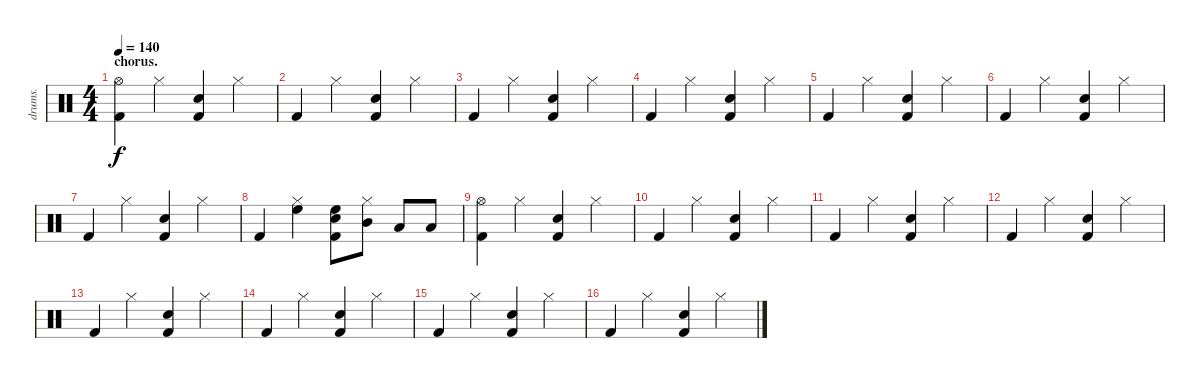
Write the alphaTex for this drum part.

\track ("drums." "drums.") {instrument percussion}
\staff {score}
\articulation defaults
\ts (4 4)
\section ("" "chorus.")
\tempo 140
\clef neutral
\ks c
("Hi-Hat (open)" "Kick (hit) 2").4{dy f} "Hi-Hat (closed)".4 ("Electric Snare (hit)" "Kick (hit) 2").4 "Hi-Hat (closed)".4 |
"Kick (hit) 2".4 "Hi-Hat (closed)".4 ("Electric Snare (hit)" "Kick (hit) 2").4 "Hi-Hat (closed)".4 |
"Kick (hit) 2".4 "Hi-Hat (closed)".4 ("Electric Snare (hit)" "Kick (hit) 2").4 "Hi-Hat (closed)".4 |
"Kick (hit) 2".4 "Hi-Hat (closed)".4 ("Electric Snare (hit)" "Kick (hit) 2").4 "Hi-Hat (closed)".4 |
"Kick (hit) 2".4 "Hi-Hat (closed)".4 ("Electric Snare (hit)" "Kick (hit) 2").4 "Hi-Hat (closed)".4 |
"Kick (hit) 2".4 "Hi-Hat (closed)".4 ("Electric Snare (hit)" "Kick (hit) 2").4 "Hi-Hat (closed)".4 |
"Kick (hit) 2".4 "Hi-Hat (closed)".4 ("Electric Snare (hit)" "Kick (hit) 2").4 "Hi-Hat (closed)".4 |
"Kick (hit) 2".4 ("High Floor Tom (hit)" "Hi-Hat (closed)").4 ("High Floor Tom (hit)" "Electric Snare (hit)" "Kick (hit) 2").8 ("Mid Tom (hit)" "Hi-Hat (closed)").8 "Low Tom (hit)".8 "Low Floor Tom (hit)".8 |
("Hi-Hat (open)" "Kick (hit) 2").4 "Hi-Hat (closed)".4 ("Electric Snare (hit)" "Kick (hit) 2").4 "Hi-Hat (closed)".4 |
"Kick (hit) 2".4 "Hi-Hat (closed)".4 ("Electric Snare (hit)" "Kick (hit) 2").4 "Hi-Hat (closed)".4 |
"Kick (hit) 2".4 "Hi-Hat (closed)".4 ("Electric Snare (hit)" "Kick (hit) 2").4 "Hi-Hat (closed)".4 |
"Kick (hit) 2".4 "Hi-Hat (closed)".4 ("Electric Snare (hit)" "Kick (hit) 2").4 "Hi-Hat (closed)".4 |
"Kick (hit) 2".4 "Hi-Hat (closed)".4 ("Electric Snare (hit)" "Kick (hit) 2").4 "Hi-Hat (closed)".4 |
"Kick (hit) 2".4 "Hi-Hat (closed)".4 ("Electric Snare (hit)" "Kick (hit) 2").4 "Hi-Hat (closed)".4 |
"Kick (hit) 2".4 "Hi-Hat (closed)".4 ("Electric Snare (hit)" "Kick (hit) 2").4 "Hi-Hat (closed)".4 |
"Kick (hit) 2".4 "Hi-Hat (closed)".4 ("Electric Snare (hit)" "Kick (hit) 2").4 "Hi-Hat (closed)".4
